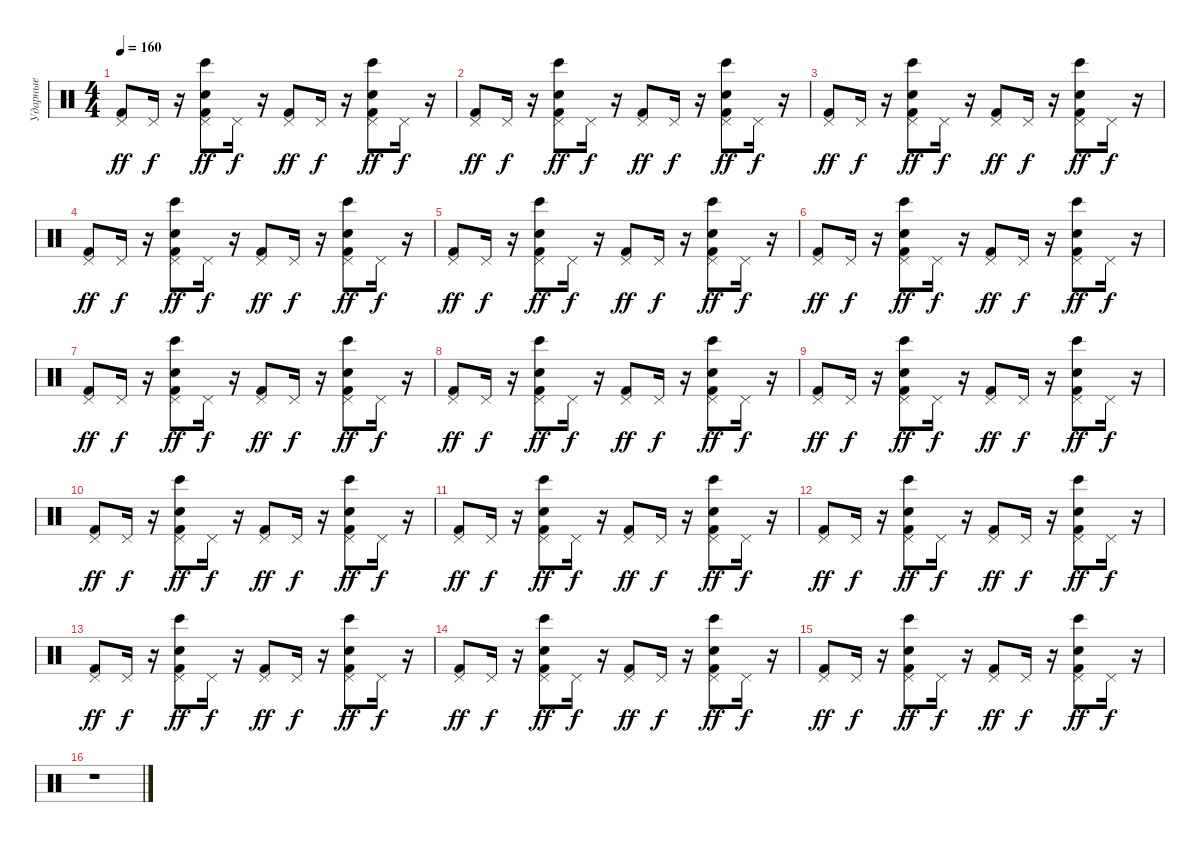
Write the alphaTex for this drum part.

\track ("Ударные" "Ударные") {instrument percussion}
\staff {score}
\articulation defaults
\ts (4 4)
\tempo 160
\clef neutral
\ks c
("Kick (hit) 2" "Pedal Hi-Hat (hit)").8{dy ff} "Pedal Hi-Hat (hit)".16{dy f} r.16 ("Kick (hit) 2" "Snare (hit) 2" "Pedal Hi-Hat (hit)" "Bongo High (hit)").8{dy ff} "Pedal Hi-Hat (hit)".16{dy f} r.16 ("Kick (hit) 2" "Pedal Hi-Hat (hit)").8{dy ff} "Pedal Hi-Hat (hit)".16{dy f} r.16 ("Snare (hit) 2" "Kick (hit) 2" "Pedal Hi-Hat (hit)" "Bongo High (hit)").8{dy ff} "Pedal Hi-Hat (hit)".16{dy f} r.16 |
("Kick (hit) 2" "Pedal Hi-Hat (hit)").8{dy ff} "Pedal Hi-Hat (hit)".16{dy f} r.16 ("Kick (hit) 2" "Snare (hit) 2" "Pedal Hi-Hat (hit)" "Bongo High (hit)").8{dy ff} "Pedal Hi-Hat (hit)".16{dy f} r.16 ("Kick (hit) 2" "Pedal Hi-Hat (hit)").8{dy ff} "Pedal Hi-Hat (hit)".16{dy f} r.16 ("Snare (hit) 2" "Kick (hit) 2" "Pedal Hi-Hat (hit)" "Bongo High (hit)").8{dy ff} "Pedal Hi-Hat (hit)".16{dy f} r.16 |
("Kick (hit) 2" "Pedal Hi-Hat (hit)").8{dy ff} "Pedal Hi-Hat (hit)".16{dy f} r.16 ("Kick (hit) 2" "Snare (hit) 2" "Pedal Hi-Hat (hit)" "Bongo High (hit)").8{dy ff} "Pedal Hi-Hat (hit)".16{dy f} r.16 ("Kick (hit) 2" "Pedal Hi-Hat (hit)").8{dy ff} "Pedal Hi-Hat (hit)".16{dy f} r.16 ("Snare (hit) 2" "Kick (hit) 2" "Pedal Hi-Hat (hit)" "Bongo High (hit)").8{dy ff} "Pedal Hi-Hat (hit)".16{dy f} r.16 |
("Kick (hit) 2" "Pedal Hi-Hat (hit)").8{dy ff} "Pedal Hi-Hat (hit)".16{dy f} r.16 ("Snare (hit) 2" "Kick (hit) 2" "Pedal Hi-Hat (hit)" "Bongo High (hit)").8{dy ff} "Pedal Hi-Hat (hit)".16{dy f} r.16 ("Kick (hit) 2" "Pedal Hi-Hat (hit)").8{dy ff} "Pedal Hi-Hat (hit)".16{dy f} r.16 ("Kick (hit) 2" "Snare (hit) 2" "Pedal Hi-Hat (hit)" "Bongo High (hit)").8{dy ff} "Pedal Hi-Hat (hit)".16{dy f} r.16 |
("Kick (hit) 2" "Pedal Hi-Hat (hit)").8{dy ff} "Pedal Hi-Hat (hit)".16{dy f} r.16 ("Kick (hit) 2" "Snare (hit) 2" "Pedal Hi-Hat (hit)" "Bongo High (hit)").8{dy ff} "Pedal Hi-Hat (hit)".16{dy f} r.16 ("Kick (hit) 2" "Pedal Hi-Hat (hit)").8{dy ff} "Pedal Hi-Hat (hit)".16{dy f} r.16 ("Kick (hit) 2" "Snare (hit) 2" "Pedal Hi-Hat (hit)" "Bongo High (hit)").8{dy ff} "Pedal Hi-Hat (hit)".16{dy f} r.16 |
("Kick (hit) 2" "Pedal Hi-Hat (hit)").8{dy ff} "Pedal Hi-Hat (hit)".16{dy f} r.16 ("Kick (hit) 2" "Snare (hit) 2" "Pedal Hi-Hat (hit)" "Bongo High (hit)").8{dy ff} "Pedal Hi-Hat (hit)".16{dy f} r.16 ("Kick (hit) 2" "Pedal Hi-Hat (hit)").8{dy ff} "Pedal Hi-Hat (hit)".16{dy f} r.16 ("Snare (hit) 2" "Kick (hit) 2" "Pedal Hi-Hat (hit)" "Bongo High (hit)").8{dy ff} "Pedal Hi-Hat (hit)".16{dy f} r.16 |
("Kick (hit) 2" "Pedal Hi-Hat (hit)").8{dy ff} "Pedal Hi-Hat (hit)".16{dy f} r.16 ("Snare (hit) 2" "Kick (hit) 2" "Pedal Hi-Hat (hit)" "Bongo High (hit)").8{dy ff} "Pedal Hi-Hat (hit)".16{dy f} r.16 ("Kick (hit) 2" "Pedal Hi-Hat (hit)").8{dy ff} "Pedal Hi-Hat (hit)".16{dy f} r.16 ("Kick (hit) 2" "Snare (hit) 2" "Pedal Hi-Hat (hit)" "Bongo High (hit)").8{dy ff} "Pedal Hi-Hat (hit)".16{dy f} r.16 |
("Kick (hit) 2" "Pedal Hi-Hat (hit)").8{dy ff} "Pedal Hi-Hat (hit)".16{dy f} r.16 ("Kick (hit) 2" "Snare (hit) 2" "Pedal Hi-Hat (hit)" "Bongo High (hit)").8{dy ff} "Pedal Hi-Hat (hit)".16{dy f} r.16 ("Kick (hit) 2" "Pedal Hi-Hat (hit)").8{dy ff} "Pedal Hi-Hat (hit)".16{dy f} r.16 ("Kick (hit) 2" "Snare (hit) 2" "Pedal Hi-Hat (hit)" "Bongo High (hit)").8{dy ff} "Pedal Hi-Hat (hit)".16{dy f} r.16 |
("Kick (hit) 2" "Pedal Hi-Hat (hit)").8{dy ff} "Pedal Hi-Hat (hit)".16{dy f} r.16 ("Kick (hit) 2" "Snare (hit) 2" "Pedal Hi-Hat (hit)" "Bongo High (hit)").8{dy ff} "Pedal Hi-Hat (hit)".16{dy f} r.16 ("Kick (hit) 2" "Pedal Hi-Hat (hit)").8{dy ff} "Pedal Hi-Hat (hit)".16{dy f} r.16 ("Snare (hit) 2" "Kick (hit) 2" "Pedal Hi-Hat (hit)" "Bongo High (hit)").8{dy ff} "Pedal Hi-Hat (hit)".16{dy f} r.16 |
("Kick (hit) 2" "Pedal Hi-Hat (hit)").8{dy ff} "Pedal Hi-Hat (hit)".16{dy f} r.16 ("Kick (hit) 2" "Snare (hit) 2" "Pedal Hi-Hat (hit)" "Bongo High (hit)").8{dy ff} "Pedal Hi-Hat (hit)".16{dy f} r.16 ("Kick (hit) 2" "Pedal Hi-Hat (hit)").8{dy ff} "Pedal Hi-Hat (hit)".16{dy f} r.16 ("Snare (hit) 2" "Kick (hit) 2" "Pedal Hi-Hat (hit)" "Bongo High (hit)").8{dy ff} "Pedal Hi-Hat (hit)".16{dy f} r.16 |
("Kick (hit) 2" "Pedal Hi-Hat (hit)").8{dy ff} "Pedal Hi-Hat (hit)".16{dy f} r.16 ("Kick (hit) 2" "Snare (hit) 2" "Pedal Hi-Hat (hit)" "Bongo High (hit)").8{dy ff} "Pedal Hi-Hat (hit)".16{dy f} r.16 ("Kick (hit) 2" "Pedal Hi-Hat (hit)").8{dy ff} "Pedal Hi-Hat (hit)".16{dy f} r.16 ("Snare (hit) 2" "Kick (hit) 2" "Pedal Hi-Hat (hit)" "Bongo High (hit)").8{dy ff} "Pedal Hi-Hat (hit)".16{dy f} r.16 |
("Kick (hit) 2" "Pedal Hi-Hat (hit)").8{dy ff} "Pedal Hi-Hat (hit)".16{dy f} r.16 ("Snare (hit) 2" "Kick (hit) 2" "Pedal Hi-Hat (hit)" "Bongo High (hit)").8{dy ff} "Pedal Hi-Hat (hit)".16{dy f} r.16 ("Kick (hit) 2" "Pedal Hi-Hat (hit)").8{dy ff} "Pedal Hi-Hat (hit)".16{dy f} r.16 ("Kick (hit) 2" "Snare (hit) 2" "Pedal Hi-Hat (hit)" "Bongo High (hit)").8{dy ff} "Pedal Hi-Hat (hit)".16{dy f} r.16 |
("Kick (hit) 2" "Pedal Hi-Hat (hit)").8{dy ff} "Pedal Hi-Hat (hit)".16{dy f} r.16 ("Kick (hit) 2" "Snare (hit) 2" "Pedal Hi-Hat (hit)" "Bongo High (hit)").8{dy ff} "Pedal Hi-Hat (hit)".16{dy f} r.16 ("Kick (hit) 2" "Pedal Hi-Hat (hit)").8{dy ff} "Pedal Hi-Hat (hit)".16{dy f} r.16 ("Kick (hit) 2" "Snare (hit) 2" "Pedal Hi-Hat (hit)" "Bongo High (hit)").8{dy ff} "Pedal Hi-Hat (hit)".16{dy f} r.16 |
("Kick (hit) 2" "Pedal Hi-Hat (hit)").8{dy ff} "Pedal Hi-Hat (hit)".16{dy f} r.16 ("Kick (hit) 2" "Snare (hit) 2" "Pedal Hi-Hat (hit)" "Bongo High (hit)").8{dy ff} "Pedal Hi-Hat (hit)".16{dy f} r.16 ("Kick (hit) 2" "Pedal Hi-Hat (hit)").8{dy ff} "Pedal Hi-Hat (hit)".16{dy f} r.16 ("Snare (hit) 2" "Kick (hit) 2" "Pedal Hi-Hat (hit)" "Bongo High (hit)").8{dy ff} "Pedal Hi-Hat (hit)".16{dy f} r.16 |
("Kick (hit) 2" "Pedal Hi-Hat (hit)").8{dy ff} "Pedal Hi-Hat (hit)".16{dy f} r.16 ("Snare (hit) 2" "Kick (hit) 2" "Pedal Hi-Hat (hit)" "Bongo High (hit)").8{dy ff} "Pedal Hi-Hat (hit)".16{dy f} r.16 ("Kick (hit) 2" "Pedal Hi-Hat (hit)").8{dy ff} "Pedal Hi-Hat (hit)".16{dy f} r.16 ("Kick (hit) 2" "Snare (hit) 2" "Pedal Hi-Hat (hit)" "Bongo High (hit)").8{dy ff} "Pedal Hi-Hat (hit)".16{dy f} r.16 |
r.1
